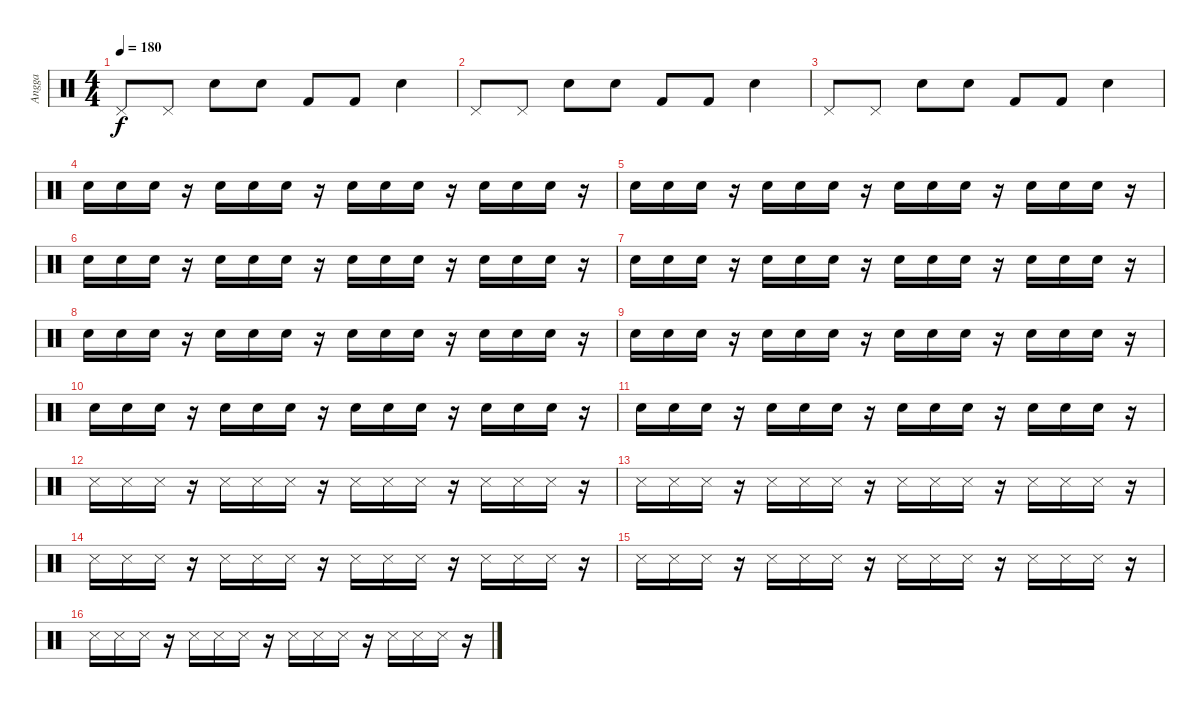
\track ("Angga" "Angga") {instrument percussion}
\staff {score}
\articulation defaults
\ts (4 4)
\tempo 180
\clef neutral
\ks c "Pedal Hi-Hat (hit)".8{dy f} "Pedal Hi-Hat (hit)".8 "Snare (hit) 2".8 "Snare (hit) 2".8 "Kick (hit) 2".8 "Kick (hit) 2".8 "Snare (hit) 2".4
|
"Pedal Hi-Hat (hit)".8 "Pedal Hi-Hat (hit)".8 "Snare (hit) 2".8 "Snare (hit) 2".8 "Kick (hit) 2".8 "Kick (hit) 2".8 "Snare (hit) 2".4 |
"Pedal Hi-Hat (hit)".8 "Pedal Hi-Hat (hit)".8 "Snare (hit) 2".8 "Snare (hit) 2".8 "Kick (hit) 2".8 "Kick (hit) 2".8 "Snare (hit) 2".4 |
"Snare (hit) 2".16 "Snare (hit) 2".16 "Snare (hit) 2".16 r.16 "Snare (hit) 2".16 "Snare (hit) 2".16 "Snare (hit) 2".16 r.16 "Snare (hit) 2".16 "Snare (hit) 2".16 "Snare (hit) 2".16 r.16 "Snare (hit) 2".16 "Snare (hit) 2".16 "Snare (hit) 2".16 r.16 |
"Snare (hit) 2".16 "Snare (hit) 2".16 "Snare (hit) 2".16 r.16 "Snare (hit) 2".16 "Snare (hit) 2".16 "Snare (hit) 2".16 r.16 "Snare (hit) 2".16 "Snare (hit) 2".16 "Snare (hit) 2".16 r.16 "Snare (hit) 2".16 "Snare (hit) 2".16 "Snare (hit) 2".16 r.16 |
"Snare (hit) 2".16 "Snare (hit) 2".16 "Snare (hit) 2".16 r.16 "Snare (hit) 2".16 "Snare (hit) 2".16 "Snare (hit) 2".16 r.16 "Snare (hit) 2".16 "Snare (hit) 2".16 "Snare (hit) 2".16 r.16 "Snare (hit) 2".16 "Snare (hit) 2".16 "Snare (hit) 2".16 r.16 |
"Snare (hit) 2".16 "Snare (hit) 2".16 "Snare (hit) 2".16 r.16 "Snare (hit) 2".16 "Snare (hit) 2".16 "Snare (hit) 2".16 r.16 "Snare (hit) 2".16 "Snare (hit) 2".16 "Snare (hit) 2".16 r.16 "Snare (hit) 2".16 "Snare (hit) 2".16 "Snare (hit) 2".16 r.16 |
"Snare (hit) 2".16 "Snare (hit) 2".16 "Snare (hit) 2".16 r.16 "Snare (hit) 2".16 "Snare (hit) 2".16 "Snare (hit) 2".16 r.16 "Snare (hit) 2".16 "Snare (hit) 2".16 "Snare (hit) 2".16 r.16 "Snare (hit) 2".16 "Snare (hit) 2".16 "Snare (hit) 2".16 r.16 |
"Snare (hit) 2".16 "Snare (hit) 2".16 "Snare (hit) 2".16 r.16 "Snare (hit) 2".16 "Snare (hit) 2".16 "Snare (hit) 2".16 r.16 "Snare (hit) 2".16 "Snare (hit) 2".16 "Snare (hit) 2".16 r.16 "Snare (hit) 2".16 "Snare (hit) 2".16 "Snare (hit) 2".16 r.16 |
"Snare (hit) 2".16 "Snare (hit) 2".16 "Snare (hit) 2".16 r.16 "Snare (hit) 2".16 "Snare (hit) 2".16 "Snare (hit) 2".16 r.16 "Snare (hit) 2".16 "Snare (hit) 2".16 "Snare (hit) 2".16 r.16 "Snare (hit) 2".16 "Snare (hit) 2".16 "Snare (hit) 2".16 r.16 |
"Snare (hit) 2".16 "Snare (hit) 2".16 "Snare (hit) 2".16 r.16 "Snare (hit) 2".16 "Snare (hit) 2".16 "Snare (hit) 2".16 r.16 "Snare (hit) 2".16 "Snare (hit) 2".16 "Snare (hit) 2".16 r.16 "Snare (hit) 2".16 "Snare (hit) 2".16 "Snare (hit) 2".16 r.16 |
"Snare (side stick) 3".16 "Snare (side stick) 3".16 "Snare (side stick) 3".16 r.16 "Snare (side stick) 3".16 "Snare (side stick) 3".16 "Snare (side stick) 3".16 r.16 "Snare (side stick) 3".16 "Snare (side stick) 3".16 "Snare (side stick) 3".16 r.16 "Snare (side stick) 3".16 "Snare (side stick) 3".16 "Snare (side stick) 3".16 r.16 |
"Snare (side stick) 3".16 "Snare (side stick) 3".16 "Snare (side stick) 3".16 r.16 "Snare (side stick) 3".16 "Snare (side stick) 3".16 "Snare (side stick) 3".16 r.16 "Snare (side stick) 3".16 "Snare (side stick) 3".16 "Snare (side stick) 3".16 r.16 "Snare (side stick) 3".16 "Snare (side stick) 3".16 "Snare (side stick) 3".16 r.16 |
"Snare (side stick) 3".16 "Snare (side stick) 3".16 "Snare (side stick) 3".16 r.16 "Snare (side stick) 3".16 "Snare (side stick) 3".16 "Snare (side stick) 3".16 r.16 "Snare (side stick) 3".16 "Snare (side stick) 3".16 "Snare (side stick) 3".16 r.16 "Snare (side stick) 3".16 "Snare (side stick) 3".16 "Snare (side stick) 3".16 r.16 |
"Snare (side stick) 3".16 "Snare (side stick) 3".16 "Snare (side stick) 3".16 r.16 "Snare (side stick) 3".16 "Snare (side stick) 3".16 "Snare (side stick) 3".16 r.16 "Snare (side stick) 3".16 "Snare (side stick) 3".16 "Snare (side stick) 3".16 r.16 "Snare (side stick) 3".16 "Snare (side stick) 3".16 "Snare (side stick) 3".16 r.16 |
"Snare (side stick) 3".16 "Snare (side stick) 3".16 "Snare (side stick) 3".16 r.16 "Snare (side stick) 3".16 "Snare (side stick) 3".16 "Snare (side stick) 3".16 r.16 "Snare (side stick) 3".16 "Snare (side stick) 3".16 "Snare (side stick) 3".16 r.16 "Snare (side stick) 3".16 "Snare (side stick) 3".16 "Snare (side stick) 3".16 r.16
